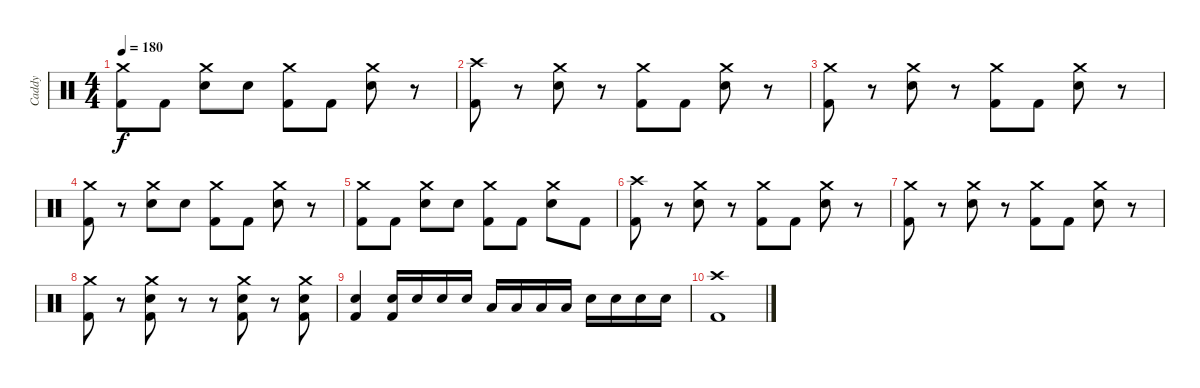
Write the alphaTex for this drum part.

\track ("Caddy" "Caddy") {instrument percussion}
\staff {score}
\articulation defaults
\ts (4 4)
\tempo 180
\clef neutral
\ks c
("Crash medium (hit)" "Kick (hit) 2").8{dy f} "Kick (hit) 2".8 ("Crash medium (hit)" "Electric Snare (hit)").8 "Electric Snare (hit)".8 ("Crash medium (hit)" "Kick (hit) 2").8 "Kick (hit) 2".8 ("Crash medium (hit)" "Electric Snare (hit)").8 r.8 |
("Crash high (hit)" "Kick (hit) 2").8 r.8 ("Crash medium (hit)" "Electric Snare (hit)").8 r.8 ("Crash medium (hit)" "Kick (hit) 2").8 "Kick (hit) 2".8 ("Crash medium (hit)" "Electric Snare (hit)").8 r.8 |
("Crash medium (hit)" "Kick (hit) 2").8 r.8 ("Crash medium (hit)" "Electric Snare (hit)").8 r.8 ("Crash medium (hit)" "Kick (hit) 2").8 "Kick (hit) 2".8 ("Crash medium (hit)" "Electric Snare (hit)").8 r.8 |
("Crash medium (hit)" "Kick (hit) 2").8 r.8 ("Crash medium (hit)" "Electric Snare (hit)").8 "Electric Snare (hit)".8 ("Crash medium (hit)" "Kick (hit) 2").8 "Kick (hit) 2".8 ("Crash medium (hit)" "Electric Snare (hit)").8 r.8 |
("Crash medium (hit)" "Kick (hit) 2").8 "Kick (hit) 2".8 ("Crash medium (hit)" "Electric Snare (hit)").8 "Electric Snare (hit)".8 ("Crash medium (hit)" "Kick (hit) 2").8 "Kick (hit) 2".8 ("Crash medium (hit)" "Electric Snare (hit)").8 "Kick (hit) 2".8 |
("Crash high (hit)" "Kick (hit) 2").8 r.8 ("Crash medium (hit)" "Electric Snare (hit)").8 r.8 ("Crash medium (hit)" "Kick (hit) 2").8 "Kick (hit) 2".8 ("Crash medium (hit)" "Electric Snare (hit)").8 r.8 |
("Crash medium (hit)" "Kick (hit) 2").8 r.8 ("Crash medium (hit)" "Electric Snare (hit)").8 r.8 ("Crash medium (hit)" "Kick (hit) 2").8 "Kick (hit) 2".8 ("Crash medium (hit)" "Electric Snare (hit)").8 r.8 |
("Crash medium (hit)" "Kick (hit) 2").8 r.8 ("Crash medium (hit)" "Electric Snare (hit)" "Kick (hit) 2").8 r.8 r.8 ("Crash medium (hit)" "Electric Snare (hit)" "Kick (hit) 2").8 r.8 ("Crash medium (hit)" "Electric Snare (hit)" "Kick (hit) 2").8 |
("Electric Snare (hit)" "Kick (hit) 2").4 ("Electric Snare (hit)" "Kick (hit) 2").16 "Electric Snare (hit)".16 "Electric Snare (hit)".16 "Electric Snare (hit)".16 "Low Tom (hit)".16 "Low Tom (hit)".16 "Low Floor Tom (hit)".16 "Low Floor Tom (hit)".16 "Electric Snare (hit)".16 "Electric Snare (hit)".16 "Electric Snare (hit)".16 "Electric Snare (hit)".16 |
("Crash high (hit)" "Kick (hit) 2").1
